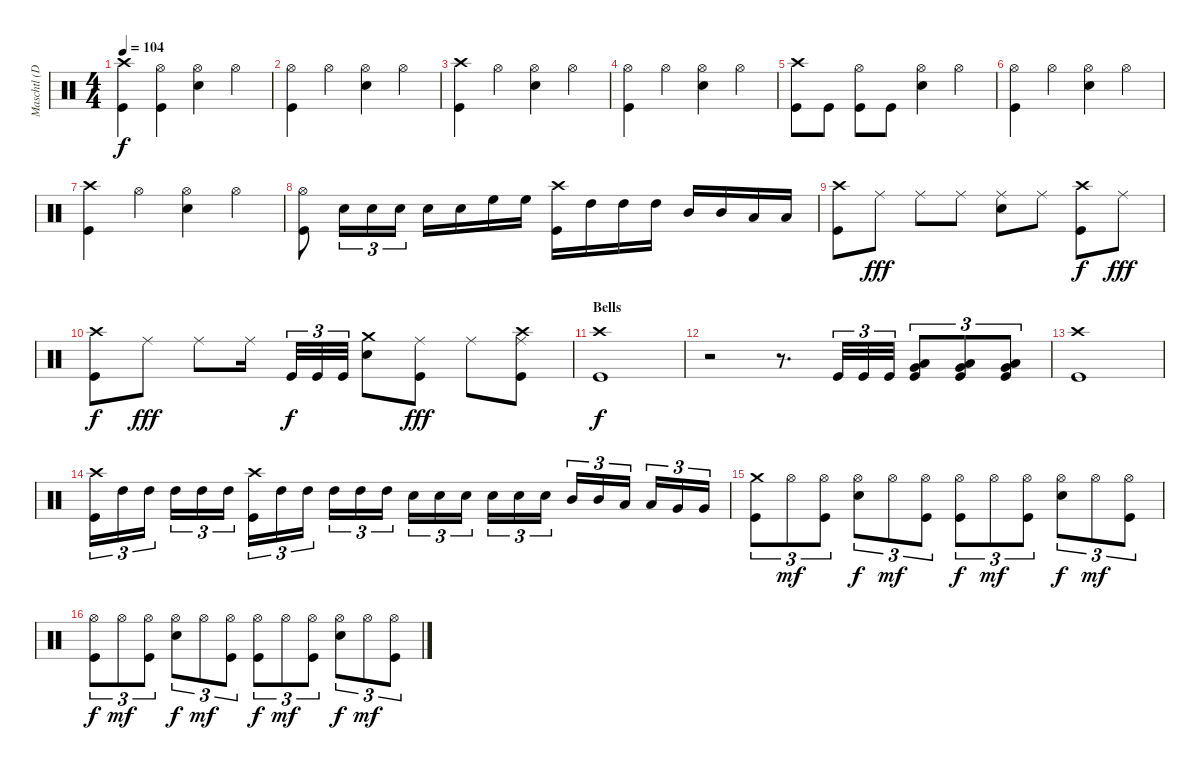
\track ("Maschtl (Drums)" "Maschtl (D") {instrument percussion}
\staff {score}
\articulation defaults
\ts (4 4)
\tempo 104
\clef neutral
\ks c
("Crash high (hit)" "Kick (hit)").4{dy f} ("Hi-Hat (open)" "Kick (hit)").4 ("Hi-Hat (open)" "Electric Snare (hit)").4 "Hi-Hat (open)".4 |
("Hi-Hat (open)" "Kick (hit)").4 "Hi-Hat (open)".4 ("Hi-Hat (open)" "Electric Snare (hit)").4 "Hi-Hat (open)".4 |
("Crash high (hit)" "Kick (hit)").4 "Hi-Hat (open)".4 ("Hi-Hat (open)" "Electric Snare (hit)").4 "Hi-Hat (open)".4 |
("Hi-Hat (open)" "Kick (hit)").4 "Hi-Hat (open)".4 ("Hi-Hat (open)" "Electric Snare (hit)").4 "Hi-Hat (open)".4 |
("Crash high (hit)" "Kick (hit)").8 "Kick (hit)".8 ("Hi-Hat (open)" "Kick (hit)").8 "Kick (hit)".8 ("Hi-Hat (open)" "Electric Snare (hit)").4 "Hi-Hat (open)".4 |
("Hi-Hat (open)" "Kick (hit)").4 "Hi-Hat (open)".4 ("Hi-Hat (open)" "Electric Snare (hit)").4 "Hi-Hat (open)".4 |
("Crash high (hit)" "Kick (hit)").4 "Hi-Hat (open)".4 ("Hi-Hat (open)" "Electric Snare (hit)").4 "Hi-Hat (open)".4 |
("Hi-Hat (open)" "Kick (hit)").8 "Electric Snare (hit)".16{tu (3 2)} "Electric Snare (hit)".16{tu (3 2)} "Electric Snare (hit)".16{tu (3 2)} "Electric Snare (hit)".16 "Electric Snare (hit)".16 "High Floor Tom (hit)".16 "High Floor Tom (hit)".16 ("Crash high (hit)" "Kick (hit)").16 "High Tom (hit)".16 "High Tom (hit)".16 "High Tom (hit)".16 "Mid Tom (hit)".16 "Mid Tom (hit)".16 "Low Tom (hit)".16 "Low Tom (hit)".16 |
("Crash high (hit)" "Kick (hit)").8 "Ride (middle)".8{dy fff} "Ride (middle)".8 "Ride (middle)".8 ("Ride (middle)" "Electric Snare (hit)").8 "Ride (middle)".8 ("Crash high (hit)" "Kick (hit)").8{dy f} "Ride (middle)".8{dy fff} |
("Crash high (hit)" "Kick (hit)").8{dy f} "Ride (middle)".8{dy fff} "Ride (middle)".8 "Ride (middle)".16 "Kick (hit)".32{tu (3 2) dy f} "Kick (hit)".32{tu (3 2)} "Kick (hit)".32{tu (3 2)} ("Crash medium (hit)" "Electric Snare (hit)").8 ("Ride (middle)" "Kick (hit)").8{dy fff} "Ride (middle)".8 ("Crash high (hit)" "Ride (middle)" "Kick (hit)").8 |
\section ("" "Bells")
("Crash high (hit)" "Kick (hit)").1{dy f} |
r.2 r.8{d} "Kick (hit)".32{tu (3 2)} "Kick (hit)".32{tu (3 2)} "Kick (hit)".32{tu (3 2)} ("Low Tom (hit)" "Very Low Tom (hit)" "Kick (hit)").8{tu (3 2) bd 60} ("Low Tom (hit)" "Very Low Tom (hit)" "Kick (hit)").8{tu (3 2) bd 60} ("Low Tom (hit)" "Very Low Tom (hit)" "Kick (hit)").8{tu (3 2) bd 60} |
("Crash high (hit)" "Kick (hit)").1 |
("Crash high (hit)" "Kick (hit)").16{tu (3 2)} "High Tom (hit)".16{tu (3 2)} "High Tom (hit)".16{tu (3 2)} "High Tom (hit)".16{tu (3 2)} "High Tom (hit)".16{tu (3 2)} "High Tom (hit)".16{tu (3 2)} ("Crash high (hit)" "Kick (hit)").16{tu (3 2)} "High Tom (hit)".16{tu (3 2)} "High Tom (hit)".16{tu (3 2)} "High Tom (hit)".16{tu (3 2)} "High Tom (hit)".16{tu (3 2)} "High Tom (hit)".16{tu (3 2)} "Electric Snare (hit)".16{tu (3 2)} "Electric Snare (hit)".16{tu (3 2)} "Electric Snare (hit)".16{tu (3 2)} "Electric Snare (hit)".16{tu (3 2)} "Electric Snare (hit)".16{tu (3 2)} "Electric Snare (hit)".16{tu (3 2)} "Mid Tom (hit)".16{tu (3 2)} "Mid Tom (hit)".16{tu (3 2)} "Low Tom (hit)".16{tu (3 2)} "Low Tom (hit)".16{tu (3 2)} "Very Low Tom (hit)".16{tu (3 2)} "Very Low Tom (hit)".16{tu (3 2)} |
("Crash medium (hit)" "Kick (hit)").8{tu (3 2)} "Hi-Hat (open)".8{tu (3 2) dy mf} ("Hi-Hat (open)" "Kick (hit)").8{tu (3 2)} ("Hi-Hat (open)" "Electric Snare (hit)").8{tu (3 2) dy f} "Hi-Hat (open)".8{tu (3 2) dy mf} ("Hi-Hat (open)" "Kick (hit)").8{tu (3 2)} ("Hi-Hat (open)" "Kick (hit)").8{tu (3 2) dy f} "Hi-Hat (open)".8{tu (3 2) dy mf} ("Hi-Hat (open)" "Kick (hit)").8{tu (3 2)} ("Hi-Hat (open)" "Electric Snare (hit)").8{tu (3 2) dy f} "Hi-Hat (open)".8{tu (3 2) dy mf} ("Hi-Hat (open)" "Kick (hit)").8{tu (3 2)} |
("Hi-Hat (open)" "Kick (hit)").8{tu (3 2) dy f} "Hi-Hat (open)".8{tu (3 2) dy mf} ("Hi-Hat (open)" "Kick (hit)").8{tu (3 2)} ("Hi-Hat (open)" "Electric Snare (hit)").8{tu (3 2) dy f} "Hi-Hat (open)".8{tu (3 2) dy mf} ("Hi-Hat (open)" "Kick (hit)").8{tu (3 2)} ("Hi-Hat (open)" "Kick (hit)").8{tu (3 2) dy f} "Hi-Hat (open)".8{tu (3 2) dy mf} ("Hi-Hat (open)" "Kick (hit)").8{tu (3 2)} ("Hi-Hat (open)" "Electric Snare (hit)").8{tu (3 2) dy f} "Hi-Hat (open)".8{tu (3 2) dy mf} ("Hi-Hat (open)" "Kick (hit)").8{tu (3 2)}
